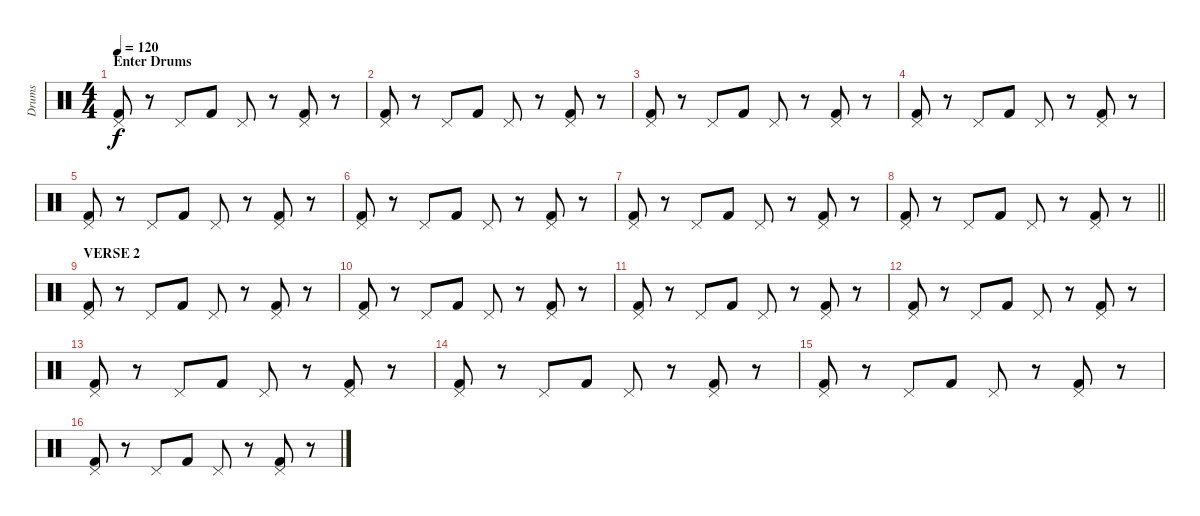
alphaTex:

\track ("Drums" "Drums") {instrument percussion}
\staff {score}
\articulation defaults
\ts (4 4)
\section ("" "Enter Drums")
\tempo 120
\clef neutral
\ks c
("Pedal Hi-Hat (hit)" "Kick (hit) 2").8{dy f} r.8 "Pedal Hi-Hat (hit)".8 "Kick (hit) 2".8 "Pedal Hi-Hat (hit)".8 r.8 ("Pedal Hi-Hat (hit)" "Kick (hit) 2").8 r.8 |
("Pedal Hi-Hat (hit)" "Kick (hit) 2").8 r.8 "Pedal Hi-Hat (hit)".8 "Kick (hit) 2".8 "Pedal Hi-Hat (hit)".8 r.8 ("Pedal Hi-Hat (hit)" "Kick (hit) 2").8 r.8 |
("Pedal Hi-Hat (hit)" "Kick (hit) 2").8 r.8 "Pedal Hi-Hat (hit)".8 "Kick (hit) 2".8 "Pedal Hi-Hat (hit)".8 r.8 ("Pedal Hi-Hat (hit)" "Kick (hit) 2").8 r.8 |
("Pedal Hi-Hat (hit)" "Kick (hit) 2").8 r.8 "Pedal Hi-Hat (hit)".8 "Kick (hit) 2".8 "Pedal Hi-Hat (hit)".8 r.8 ("Pedal Hi-Hat (hit)" "Kick (hit) 2").8 r.8 |
("Pedal Hi-Hat (hit)" "Kick (hit) 2").8 r.8 "Pedal Hi-Hat (hit)".8 "Kick (hit) 2".8 "Pedal Hi-Hat (hit)".8 r.8 ("Pedal Hi-Hat (hit)" "Kick (hit) 2").8 r.8 |
("Pedal Hi-Hat (hit)" "Kick (hit) 2").8 r.8 "Pedal Hi-Hat (hit)".8 "Kick (hit) 2".8 "Pedal Hi-Hat (hit)".8 r.8 ("Pedal Hi-Hat (hit)" "Kick (hit) 2").8 r.8 |
("Pedal Hi-Hat (hit)" "Kick (hit) 2").8 r.8 "Pedal Hi-Hat (hit)".8 "Kick (hit) 2".8 "Pedal Hi-Hat (hit)".8 r.8 ("Pedal Hi-Hat (hit)" "Kick (hit) 2").8 r.8 |
\barLineRight lightlight
("Pedal Hi-Hat (hit)" "Kick (hit) 2").8 r.8 "Pedal Hi-Hat (hit)".8 "Kick (hit) 2".8 "Pedal Hi-Hat (hit)".8 r.8 ("Pedal Hi-Hat (hit)" "Kick (hit) 2").8 r.8 |
\section ("" "VERSE 2")
("Pedal Hi-Hat (hit)" "Kick (hit) 2").8 r.8 "Pedal Hi-Hat (hit)".8 "Kick (hit) 2".8 "Pedal Hi-Hat (hit)".8 r.8 ("Pedal Hi-Hat (hit)" "Kick (hit) 2").8 r.8 |
("Pedal Hi-Hat (hit)" "Kick (hit) 2").8 r.8 "Pedal Hi-Hat (hit)".8 "Kick (hit) 2".8 "Pedal Hi-Hat (hit)".8 r.8 ("Pedal Hi-Hat (hit)" "Kick (hit) 2").8 r.8 |
("Pedal Hi-Hat (hit)" "Kick (hit) 2").8 r.8 "Pedal Hi-Hat (hit)".8 "Kick (hit) 2".8 "Pedal Hi-Hat (hit)".8 r.8 ("Pedal Hi-Hat (hit)" "Kick (hit) 2").8 r.8 |
("Pedal Hi-Hat (hit)" "Kick (hit) 2").8 r.8 "Pedal Hi-Hat (hit)".8 "Kick (hit) 2".8 "Pedal Hi-Hat (hit)".8 r.8 ("Pedal Hi-Hat (hit)" "Kick (hit) 2").8 r.8 |
("Pedal Hi-Hat (hit)" "Kick (hit) 2").8 r.8 "Pedal Hi-Hat (hit)".8 "Kick (hit) 2".8 "Pedal Hi-Hat (hit)".8 r.8 ("Pedal Hi-Hat (hit)" "Kick (hit) 2").8 r.8 |
("Pedal Hi-Hat (hit)" "Kick (hit) 2").8 r.8 "Pedal Hi-Hat (hit)".8 "Kick (hit) 2".8 "Pedal Hi-Hat (hit)".8 r.8 ("Pedal Hi-Hat (hit)" "Kick (hit) 2").8 r.8 |
("Pedal Hi-Hat (hit)" "Kick (hit) 2").8 r.8 "Pedal Hi-Hat (hit)".8 "Kick (hit) 2".8 "Pedal Hi-Hat (hit)".8 r.8 ("Pedal Hi-Hat (hit)" "Kick (hit) 2").8 r.8 |
("Pedal Hi-Hat (hit)" "Kick (hit) 2").8 r.8 "Pedal Hi-Hat (hit)".8 "Kick (hit) 2".8 "Pedal Hi-Hat (hit)".8 r.8 ("Pedal Hi-Hat (hit)" "Kick (hit) 2").8 r.8
